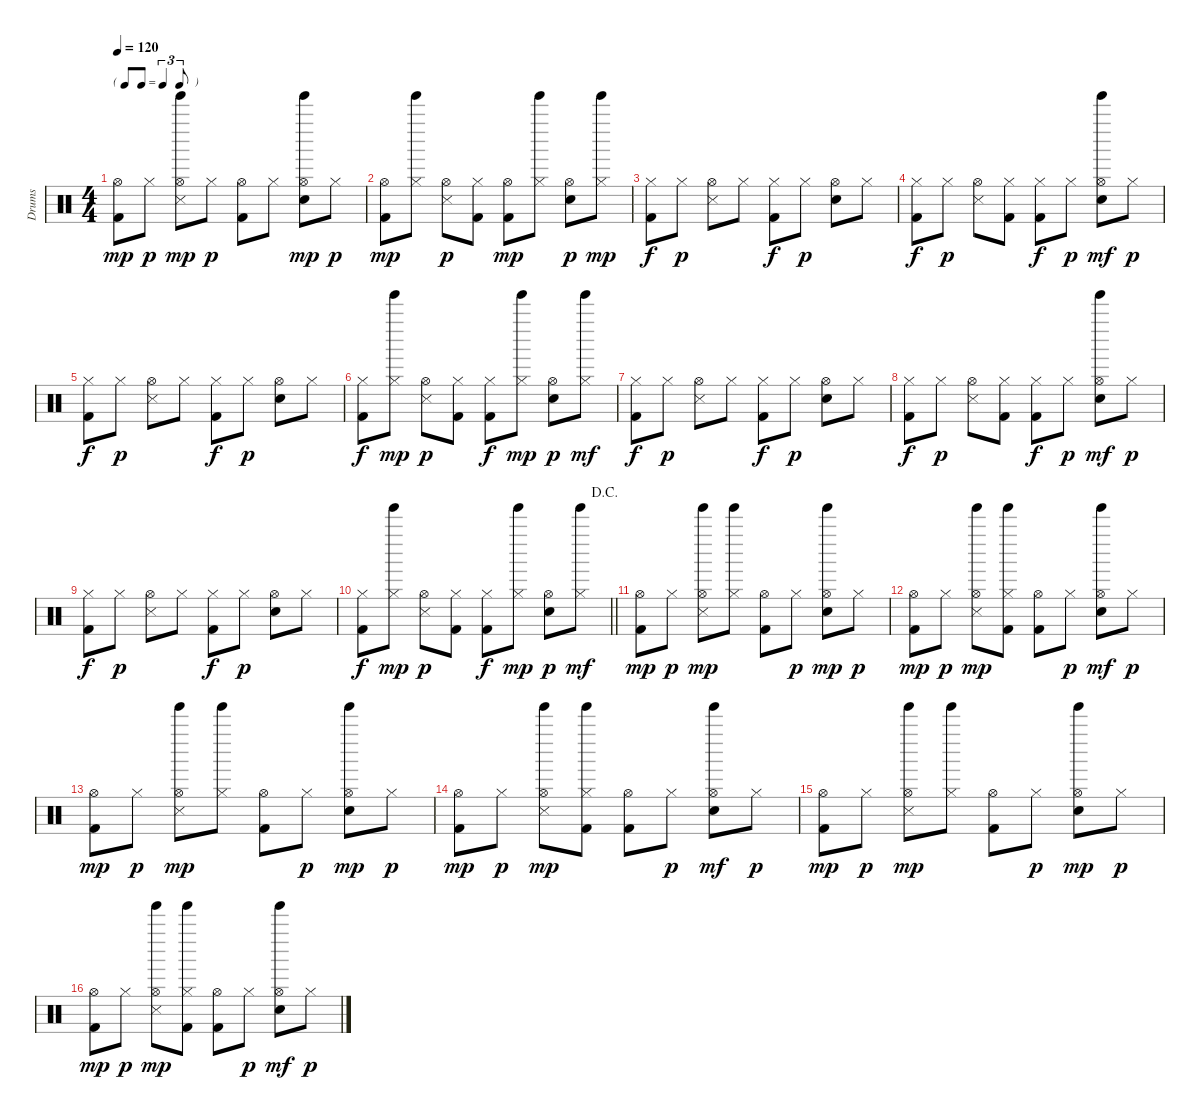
\track ("Drums" "Drums") {instrument percussion}
\staff {score}
\articulation defaults
\ts (4 4)
\tf triplet8th
\tempo 120
\clef neutral
\ks c
("Hi-Hat (open)" "Kick (hit) 2").8{dy mp} "Hi-Hat (closed)".8{dy p} ("Hi-Hat (open)" "Snare (side stick) 3" "Tinkle Bell (hit)").8{dy mp} "Hi-Hat (closed)".8{dy p} ("Hi-Hat (open)" "Kick (hit) 2").8 "Hi-Hat (closed)".8 ("Hi-Hat (open)" "Snare (hit) 2" "Tinkle Bell (hit)").8{dy mp} "Hi-Hat (closed)".8{dy p} |
("Hi-Hat (open)" "Kick (hit) 2").8{dy mp} ("Hi-Hat (closed)" "Tinkle Bell (hit)").8 ("Hi-Hat (open)" "Snare (side stick) 3").8{dy p} ("Hi-Hat (closed)" "Kick (hit) 2").8 ("Hi-Hat (open)" "Kick (hit) 2").8{dy mp} ("Hi-Hat (closed)" "Tinkle Bell (hit)").8 ("Hi-Hat (open)" "Snare (hit) 2").8{dy p} ("Hi-Hat (closed)" "Tinkle Bell (hit)").8{dy mp} |
("Hi-Hat (closed)" "Kick (hit) 2").8{dy f} "Hi-Hat (closed)".8{dy p} ("Hi-Hat (open)" "Snare (side stick) 3").8 "Hi-Hat (closed)".8 ("Hi-Hat (closed)" "Kick (hit) 2").8{dy f} "Hi-Hat (closed)".8{dy p} ("Hi-Hat (open)" "Snare (hit) 2").8 "Hi-Hat (closed)".8 |
("Hi-Hat (closed)" "Kick (hit) 2").8{dy f} "Hi-Hat (closed)".8{dy p} ("Hi-Hat (open)" "Snare (side stick) 3").8 ("Hi-Hat (closed)" "Kick (hit) 2").8 ("Hi-Hat (closed)" "Kick (hit) 2").8{dy f} "Hi-Hat (closed)".8{dy p} ("Hi-Hat (open)" "Snare (hit) 2" "Tinkle Bell (hit)").8{dy mf} "Hi-Hat (closed)".8{dy p} |
("Hi-Hat (closed)" "Kick (hit) 2").8{dy f} "Hi-Hat (closed)".8{dy p} ("Hi-Hat (open)" "Snare (side stick) 3").8 "Hi-Hat (closed)".8 ("Hi-Hat (closed)" "Kick (hit) 2").8{dy f} "Hi-Hat (closed)".8{dy p} ("Hi-Hat (open)" "Snare (hit) 2").8 "Hi-Hat (closed)".8 |
("Hi-Hat (closed)" "Kick (hit) 2").8{dy f} ("Hi-Hat (closed)" "Tinkle Bell (hit)").8{dy mp} ("Hi-Hat (open)" "Snare (side stick) 3").8{dy p} ("Hi-Hat (closed)" "Kick (hit) 2").8 ("Hi-Hat (closed)" "Kick (hit) 2").8{dy f} ("Hi-Hat (closed)" "Tinkle Bell (hit)").8{dy mp} ("Hi-Hat (open)" "Snare (hit) 2").8{dy p} ("Hi-Hat (closed)" "Tinkle Bell (hit)").8{dy mf} |
("Hi-Hat (closed)" "Kick (hit) 2").8{dy f} "Hi-Hat (closed)".8{dy p} ("Hi-Hat (open)" "Snare (side stick) 3").8 "Hi-Hat (closed)".8 ("Hi-Hat (closed)" "Kick (hit) 2").8{dy f} "Hi-Hat (closed)".8{dy p} ("Hi-Hat (open)" "Snare (hit) 2").8 "Hi-Hat (closed)".8 |
("Hi-Hat (closed)" "Kick (hit) 2").8{dy f} "Hi-Hat (closed)".8{dy p} ("Hi-Hat (open)" "Snare (side stick) 3").8 ("Hi-Hat (closed)" "Kick (hit) 2").8 ("Hi-Hat (closed)" "Kick (hit) 2").8{dy f} "Hi-Hat (closed)".8{dy p} ("Hi-Hat (open)" "Snare (hit) 2" "Tinkle Bell (hit)").8{dy mf} "Hi-Hat (closed)".8{dy p} |
("Hi-Hat (closed)" "Kick (hit) 2").8{dy f} "Hi-Hat (closed)".8{dy p} ("Hi-Hat (open)" "Snare (side stick) 3").8 "Hi-Hat (closed)".8 ("Hi-Hat (closed)" "Kick (hit) 2").8{dy f} "Hi-Hat (closed)".8{dy p} ("Hi-Hat (open)" "Snare (hit) 2").8 "Hi-Hat (closed)".8 |
\jump dacapo
\barLineRight lightlight
("Hi-Hat (closed)" "Kick (hit) 2").8{dy f} ("Hi-Hat (closed)" "Tinkle Bell (hit)").8{dy mp} ("Hi-Hat (open)" "Snare (side stick) 3").8{dy p} ("Hi-Hat (closed)" "Kick (hit) 2").8 ("Hi-Hat (closed)" "Kick (hit) 2").8{dy f} ("Hi-Hat (closed)" "Tinkle Bell (hit)").8{dy mp} ("Hi-Hat (open)" "Snare (hit) 2").8{dy p} ("Hi-Hat (closed)" "Tinkle Bell (hit)").8{dy mf} |
("Hi-Hat (open)" "Kick (hit) 2").8{dy mp} "Hi-Hat (closed)".8{dy p} ("Hi-Hat (open)" "Snare (side stick) 3" "Tinkle Bell (hit)").8{dy mp} ("Hi-Hat (closed)" "Tinkle Bell (hit)").8 ("Hi-Hat (open)" "Kick (hit) 2").8 "Hi-Hat (closed)".8{dy p} ("Hi-Hat (open)" "Snare (hit) 2" "Tinkle Bell (hit)").8{dy mp} "Hi-Hat (closed)".8{dy p} |
("Hi-Hat (open)" "Kick (hit) 2").8{dy mp} "Hi-Hat (closed)".8{dy p} ("Hi-Hat (open)" "Snare (side stick) 3" "Tinkle Bell (hit)").8{dy mp} ("Hi-Hat (closed)" "Kick (hit) 2" "Tinkle Bell (hit)").8 ("Hi-Hat (open)" "Kick (hit) 2").8 "Hi-Hat (closed)".8{dy p} ("Hi-Hat (open)" "Snare (hit) 2" "Tinkle Bell (hit)").8{dy mf} "Hi-Hat (closed)".8{dy p} |
("Hi-Hat (open)" "Kick (hit) 2").8{dy mp} "Hi-Hat (closed)".8{dy p} ("Hi-Hat (open)" "Snare (side stick) 3" "Tinkle Bell (hit)").8{dy mp} ("Hi-Hat (closed)" "Tinkle Bell (hit)").8 ("Hi-Hat (open)" "Kick (hit) 2").8 "Hi-Hat (closed)".8{dy p} ("Hi-Hat (open)" "Snare (hit) 2" "Tinkle Bell (hit)").8{dy mp} "Hi-Hat (closed)".8{dy p} |
("Hi-Hat (open)" "Kick (hit) 2").8{dy mp} "Hi-Hat (closed)".8{dy p} ("Hi-Hat (open)" "Snare (side stick) 3" "Tinkle Bell (hit)").8{dy mp} ("Hi-Hat (closed)" "Kick (hit) 2" "Tinkle Bell (hit)").8 ("Hi-Hat (open)" "Kick (hit) 2").8 "Hi-Hat (closed)".8{dy p} ("Hi-Hat (open)" "Snare (hit) 2" "Tinkle Bell (hit)").8{dy mf} "Hi-Hat (closed)".8{dy p} |
("Hi-Hat (open)" "Kick (hit) 2").8{dy mp} "Hi-Hat (closed)".8{dy p} ("Hi-Hat (open)" "Snare (side stick) 3" "Tinkle Bell (hit)").8{dy mp} ("Hi-Hat (closed)" "Tinkle Bell (hit)").8 ("Hi-Hat (open)" "Kick (hit) 2").8 "Hi-Hat (closed)".8{dy p} ("Hi-Hat (open)" "Snare (hit) 2" "Tinkle Bell (hit)").8{dy mp} "Hi-Hat (closed)".8{dy p} |
("Hi-Hat (open)" "Kick (hit) 2").8{dy mp} "Hi-Hat (closed)".8{dy p} ("Hi-Hat (open)" "Snare (side stick) 3" "Tinkle Bell (hit)").8{dy mp} ("Hi-Hat (closed)" "Kick (hit) 2" "Tinkle Bell (hit)").8 ("Hi-Hat (open)" "Kick (hit) 2").8 "Hi-Hat (closed)".8{dy p} ("Hi-Hat (open)" "Snare (hit) 2" "Tinkle Bell (hit)").8{dy mf} "Hi-Hat (closed)".8{dy p}
